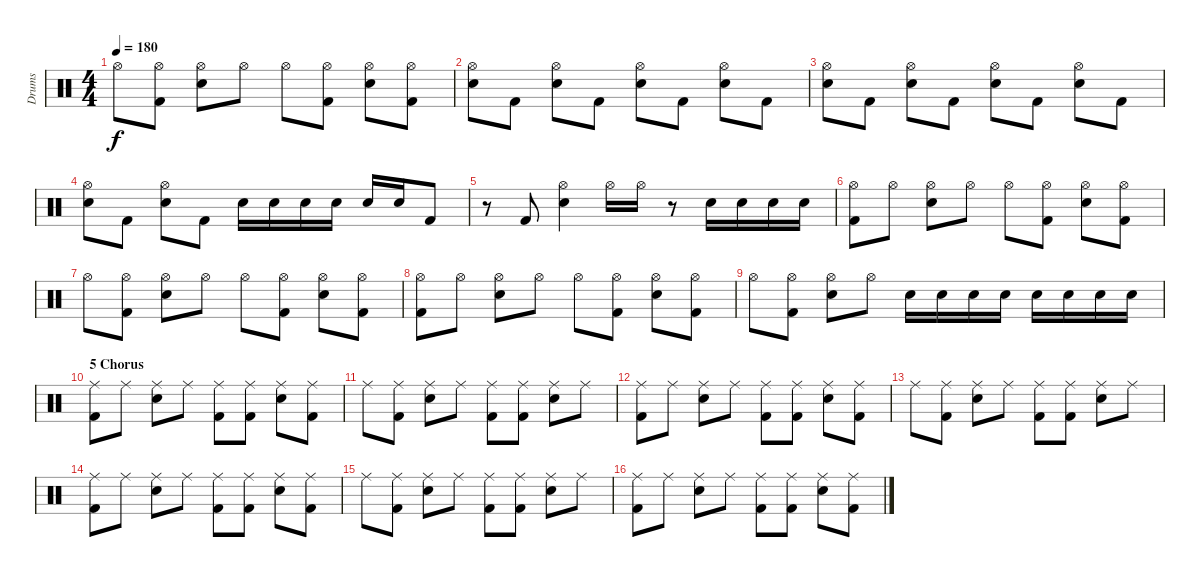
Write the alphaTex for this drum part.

\track ("Drums" "Drums") {instrument percussion}
\staff {score}
\articulation defaults
\ts (4 4)
\tempo 180
\clef neutral
\ks c "Hi-Hat (open)".8{dy f}
("Hi-Hat (open)" "Kick (hit) 2").8 ("Hi-Hat (open)" "Electric Snare (hit)").8 "Hi-Hat (open)".8 "Hi-Hat (open)".8 ("Hi-Hat (open)" "Kick (hit) 2").8 ("Hi-Hat (open)" "Electric Snare (hit)").8 ("Hi-Hat (open)" "Kick (hit) 2").8 |
("Hi-Hat (open)" "Electric Snare (hit)").8 "Kick (hit) 2".8 ("Hi-Hat (open)" "Electric Snare (hit)").8 "Kick (hit) 2".8 ("Hi-Hat (open)" "Electric Snare (hit)").8 "Kick (hit) 2".8 ("Hi-Hat (open)" "Electric Snare (hit)").8 "Kick (hit) 2".8 |
("Hi-Hat (open)" "Electric Snare (hit)").8 "Kick (hit) 2".8 ("Hi-Hat (open)" "Electric Snare (hit)").8 "Kick (hit) 2".8 ("Hi-Hat (open)" "Electric Snare (hit)").8 "Kick (hit) 2".8 ("Hi-Hat (open)" "Electric Snare (hit)").8 "Kick (hit) 2".8 |
("Hi-Hat (open)" "Electric Snare (hit)").8 "Kick (hit) 2".8 ("Hi-Hat (open)" "Electric Snare (hit)").8 "Kick (hit) 2".8 "Electric Snare (hit)".16 "Electric Snare (hit)".16 "Electric Snare (hit)".16 "Electric Snare (hit)".16 "Electric Snare (hit)".16 "Electric Snare (hit)".16 "Kick (hit) 2".8 |
r.8 "Kick (hit) 2".8 ("Hi-Hat (open)" "Electric Snare (hit)").4 "Hi-Hat (open)".16 "Hi-Hat (open)".16 r.8 "Electric Snare (hit)".16 "Electric Snare (hit)".16 "Electric Snare (hit)".16 "Electric Snare (hit)".16 |
("Hi-Hat (open)" "Kick (hit) 2").8 "Hi-Hat (open)".8 ("Hi-Hat (open)" "Electric Snare (hit)").8 "Hi-Hat (open)".8 "Hi-Hat (open)".8 ("Hi-Hat (open)" "Kick (hit) 2").8 ("Hi-Hat (open)" "Electric Snare (hit)").8 ("Hi-Hat (open)" "Kick (hit) 2").8 |
"Hi-Hat (open)".8 ("Hi-Hat (open)" "Kick (hit) 2").8 ("Hi-Hat (open)" "Electric Snare (hit)").8 "Hi-Hat (open)".8 "Hi-Hat (open)".8 ("Hi-Hat (open)" "Kick (hit) 2").8 ("Hi-Hat (open)" "Electric Snare (hit)").8 ("Hi-Hat (open)" "Kick (hit) 2").8 |
("Hi-Hat (open)" "Kick (hit) 2").8 "Hi-Hat (open)".8 ("Hi-Hat (open)" "Electric Snare (hit)").8 "Hi-Hat (open)".8 "Hi-Hat (open)".8 ("Hi-Hat (open)" "Kick (hit) 2").8 ("Hi-Hat (open)" "Electric Snare (hit)").8 ("Hi-Hat (open)" "Kick (hit) 2").8 |
"Hi-Hat (open)".8 ("Hi-Hat (open)" "Kick (hit) 2").8 ("Hi-Hat (open)" "Electric Snare (hit)").8 "Hi-Hat (open)".8 "Electric Snare (hit)".16 "Electric Snare (hit)".16 "Electric Snare (hit)".16 "Electric Snare (hit)".16 "Electric Snare (hit)".16 "Electric Snare (hit)".16 "Electric Snare (hit)".16 "Electric Snare (hit)".16 |
\section ("" "5 Chorus")
("Ride (middle)" "Kick (hit) 2").8 "Ride (middle)".8 ("Ride (middle)" "Electric Snare (hit)").8 "Ride (middle)".8 ("Ride (middle)" "Kick (hit) 2").8 ("Ride (middle)" "Kick (hit) 2").8 ("Ride (middle)" "Electric Snare (hit)").8 ("Ride (middle)" "Kick (hit) 2").8 |
"Ride (middle)".8 ("Ride (middle)" "Kick (hit) 2").8 ("Ride (middle)" "Electric Snare (hit)").8 "Ride (middle)".8 ("Ride (middle)" "Kick (hit) 2").8 ("Ride (middle)" "Kick (hit) 2").8 ("Ride (middle)" "Electric Snare (hit)").8 "Ride (middle)".8 |
("Ride (middle)" "Kick (hit) 2").8 "Ride (middle)".8 ("Ride (middle)" "Electric Snare (hit)").8 "Ride (middle)".8 ("Ride (middle)" "Kick (hit) 2").8 ("Ride (middle)" "Kick (hit) 2").8 ("Ride (middle)" "Electric Snare (hit)").8 ("Ride (middle)" "Kick (hit) 2").8 |
"Ride (middle)".8 ("Ride (middle)" "Kick (hit) 2").8 ("Ride (middle)" "Electric Snare (hit)").8 "Ride (middle)".8 ("Ride (middle)" "Kick (hit) 2").8 ("Ride (middle)" "Kick (hit) 2").8 ("Ride (middle)" "Electric Snare (hit)").8 "Ride (middle)".8 |
("Ride (middle)" "Kick (hit) 2").8 "Ride (middle)".8 ("Ride (middle)" "Electric Snare (hit)").8 "Ride (middle)".8 ("Ride (middle)" "Kick (hit) 2").8 ("Ride (middle)" "Kick (hit) 2").8 ("Ride (middle)" "Electric Snare (hit)").8 ("Ride (middle)" "Kick (hit) 2").8 |
"Ride (middle)".8 ("Ride (middle)" "Kick (hit) 2").8 ("Ride (middle)" "Electric Snare (hit)").8 "Ride (middle)".8 ("Ride (middle)" "Kick (hit) 2").8 ("Ride (middle)" "Kick (hit) 2").8 ("Ride (middle)" "Electric Snare (hit)").8 "Ride (middle)".8 |
("Ride (middle)" "Kick (hit) 2").8 "Ride (middle)".8 ("Ride (middle)" "Electric Snare (hit)").8 "Ride (middle)".8 ("Ride (middle)" "Kick (hit) 2").8 ("Ride (middle)" "Kick (hit) 2").8 ("Ride (middle)" "Electric Snare (hit)").8 ("Ride (middle)" "Kick (hit) 2").8
